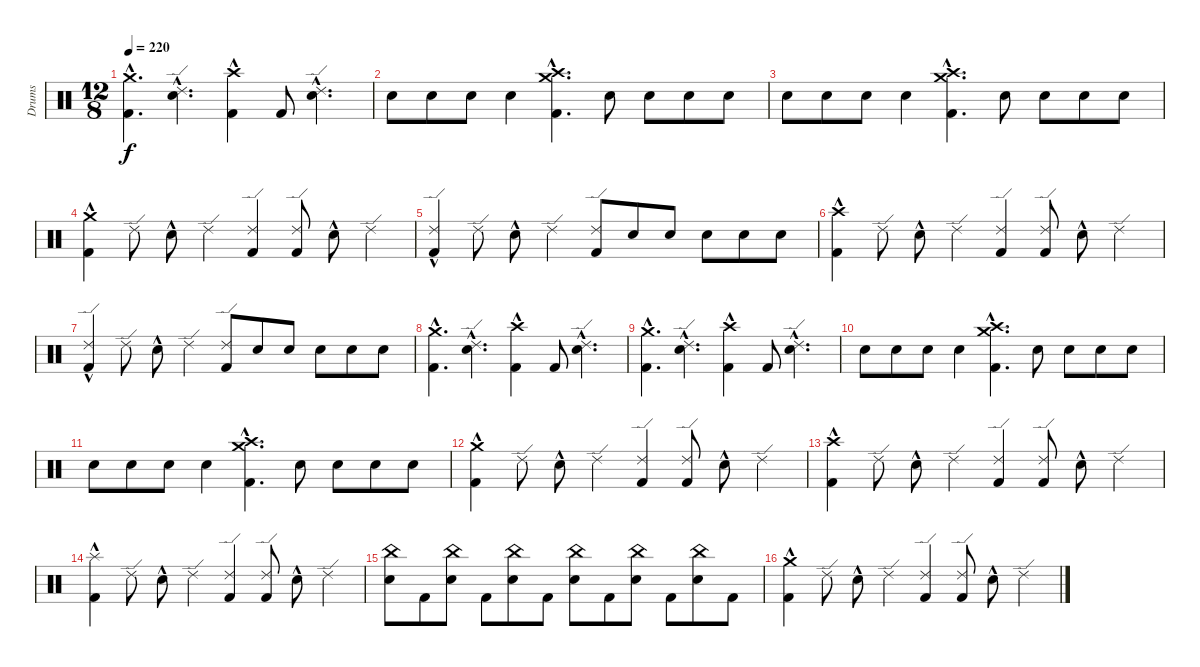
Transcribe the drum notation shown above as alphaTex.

\track ("Drums" "Drums") {instrument percussion}
\staff {score}
\articulation defaults
\ts (12 8)
\tempo 220
\clef neutral
\ks c
("Kick (hit) 2"{hac} "Crash medium (hit)"{hac}).4{d dy f} ("Ride (edge) 2"{hac} "Snare (hit) 2"{hac}).4{d} ("Kick (hit) 2" "Crash high (hit)"{hac}).4 "Kick (hit) 2".8 ("Ride (edge) 2"{hac} "Snare (hit) 2"{hac}).4{d} |
"Snare (hit) 2".8 "Snare (hit) 2".8 "Snare (hit) 2".8 "Snare (hit) 2".4 ("Crash medium (hit)"{hac} "Crash high (hit)"{hac} "Kick (hit) 2"{hac}).4{d} "Snare (hit) 2".8 "Snare (hit) 2".8 "Snare (hit) 2".8 "Snare (hit) 2".8 |
"Snare (hit) 2".8 "Snare (hit) 2".8 "Snare (hit) 2".8 "Snare (hit) 2".4 ("Crash medium (hit)"{hac} "Crash high (hit)"{hac} "Kick (hit) 2"{hac}).4{d} "Snare (hit) 2".8 "Snare (hit) 2".8 "Snare (hit) 2".8 "Snare (hit) 2".8 |
("Kick (hit) 2"{hac} "Crash medium (hit)").4 "Ride (edge) 2".8 "Snare (hit) 2"{hac}.8 "Ride (edge) 2".4 ("Kick (hit) 2" "Ride (edge) 2").4 ("Kick (hit) 2" "Ride (edge) 2").8 "Snare (hit) 2"{hac}.8 "Ride (edge) 2".4 |
("Ride (edge) 2" "Kick (hit) 2"{hac}).4 "Ride (edge) 2".8 "Snare (hit) 2"{hac}.8 "Ride (edge) 2".4 ("Kick (hit) 2" "Ride (edge) 2").8 "Snare (hit) 2".8 "Snare (hit) 2".8 "Snare (hit) 2".8 "Snare (hit) 2".8 "Snare (hit) 2".8 |
("Kick (hit) 2"{hac} "Crash high (hit)").4 "Ride (edge) 2".8 "Snare (hit) 2"{hac}.8 "Ride (edge) 2".4 ("Kick (hit) 2" "Ride (edge) 2").4 ("Kick (hit) 2" "Ride (edge) 2").8 "Snare (hit) 2"{hac}.8 "Ride (edge) 2".4 |
("Ride (edge) 2" "Kick (hit) 2"{hac}).4 "Ride (edge) 2".8 "Snare (hit) 2"{hac}.8 "Ride (edge) 2".4 ("Kick (hit) 2" "Ride (edge) 2").8 "Snare (hit) 2".8 "Snare (hit) 2".8 "Snare (hit) 2".8 "Snare (hit) 2".8 "Snare (hit) 2".8 |
("Kick (hit) 2"{hac} "Crash medium (hit)"{hac}).4{d} ("Ride (edge) 2"{hac} "Snare (hit) 2"{hac}).4{d} ("Kick (hit) 2" "Crash high (hit)"{hac}).4 "Kick (hit) 2".8 ("Ride (edge) 2"{hac} "Snare (hit) 2"{hac}).4{d} |
("Kick (hit) 2"{hac} "Crash medium (hit)"{hac}).4{d} ("Ride (edge) 2"{hac} "Snare (hit) 2"{hac}).4{d} ("Kick (hit) 2" "Crash high (hit)"{hac}).4 "Kick (hit) 2".8 ("Ride (edge) 2"{hac} "Snare (hit) 2"{hac}).4{d} |
"Snare (hit) 2".8 "Snare (hit) 2".8 "Snare (hit) 2".8 "Snare (hit) 2".4 ("Crash medium (hit)"{hac} "Crash high (hit)"{hac} "Kick (hit) 2"{hac}).4{d} "Snare (hit) 2".8 "Snare (hit) 2".8 "Snare (hit) 2".8 "Snare (hit) 2".8 |
"Snare (hit) 2".8 "Snare (hit) 2".8 "Snare (hit) 2".8 "Snare (hit) 2".4 ("Crash medium (hit)"{hac} "Crash high (hit)"{hac} "Kick (hit) 2"{hac}).4{d} "Snare (hit) 2".8 "Snare (hit) 2".8 "Snare (hit) 2".8 "Snare (hit) 2".8 |
("Kick (hit) 2"{hac} "Crash medium (hit)").4 "Ride (edge) 2".8 "Snare (hit) 2"{hac}.8 "Ride (edge) 2".4 ("Kick (hit) 2" "Ride (edge) 2").4 ("Kick (hit) 2" "Ride (edge) 2").8 "Snare (hit) 2"{hac}.8 "Ride (edge) 2".4 |
("Kick (hit) 2"{hac} "Crash high (hit)").4 "Ride (edge) 2".8 "Snare (hit) 2"{hac}.8 "Ride (edge) 2".4 ("Kick (hit) 2" "Ride (edge) 2").4 ("Kick (hit) 2" "Ride (edge) 2").8 "Snare (hit) 2"{hac}.8 "Ride (edge) 2".4 |
("Splash (hit)" "Kick (hit) 2"{hac}).4 "Ride (edge) 2".8 "Snare (hit) 2"{hac}.8 "Ride (edge) 2".4 ("Kick (hit) 2" "Ride (edge) 2").4 ("Kick (hit) 2" "Ride (edge) 2").8 "Snare (hit) 2"{hac}.8 "Ride (edge) 2".4 |
("Snare (hit) 2" "China (hit)").8 "Kick (hit) 2".8 ("Snare (hit) 2" "China (hit)").8 "Kick (hit) 2".8 ("Snare (hit) 2" "China (hit)").8 "Kick (hit) 2".8 ("Snare (hit) 2" "China (hit)").8 "Kick (hit) 2".8 ("Snare (hit) 2" "China (hit)").8 "Kick (hit) 2".8 ("Snare (hit) 2" "China (hit)").8 "Kick (hit) 2".8 |
("Kick (hit) 2"{hac} "Crash medium (hit)").4 "Ride (edge) 2".8 "Snare (hit) 2"{hac}.8 "Ride (edge) 2".4 ("Kick (hit) 2" "Ride (edge) 2").4 ("Kick (hit) 2" "Ride (edge) 2").8 "Snare (hit) 2"{hac}.8 "Ride (edge) 2".4
